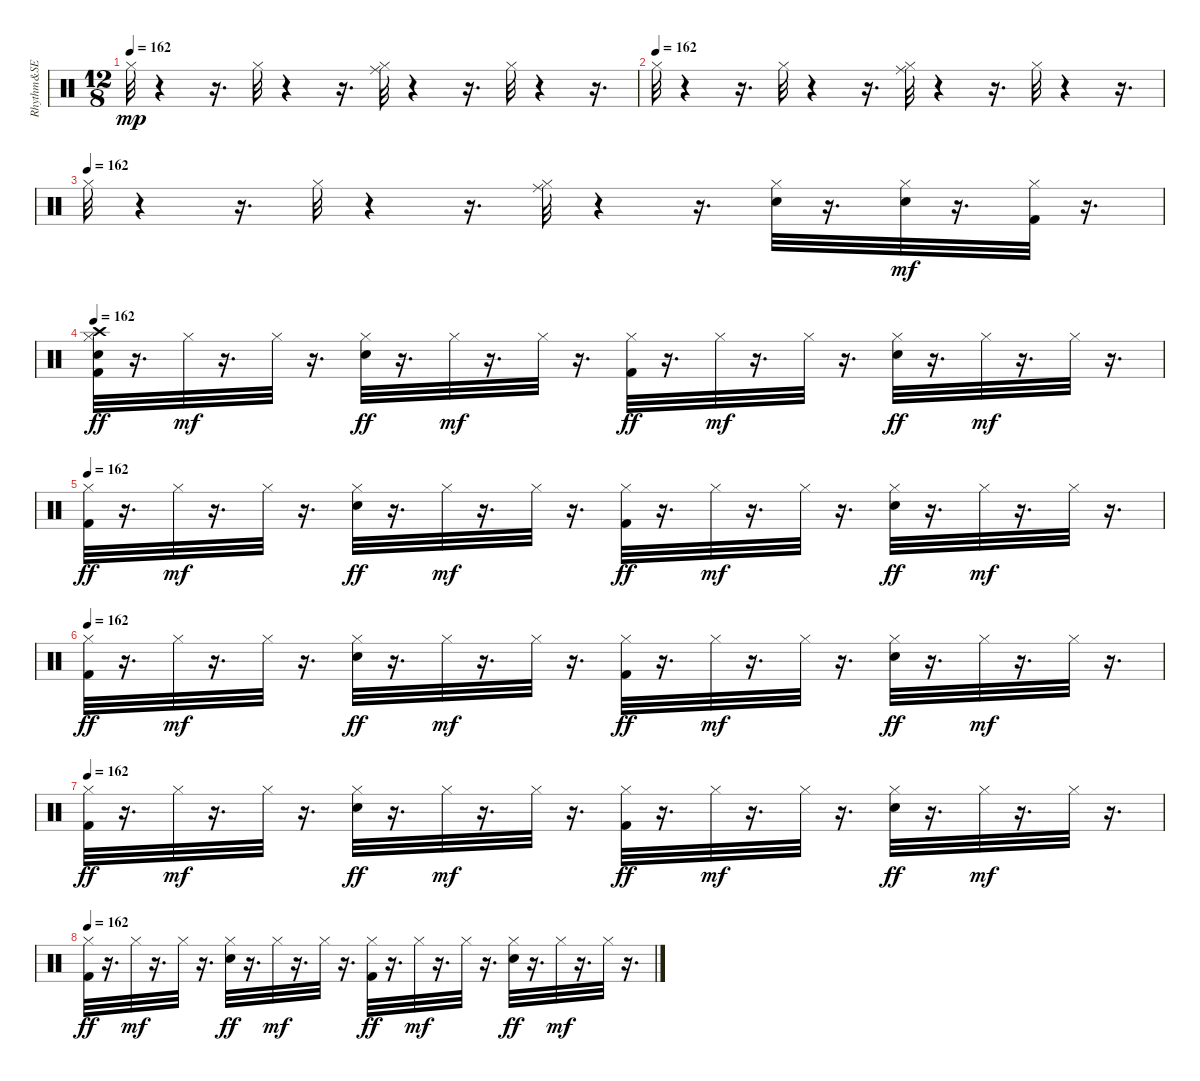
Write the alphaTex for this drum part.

\track ("Rhythm&SE" "Rhythm&SE") {instrument percussion}
\staff {score}
\articulation defaults
\ts (12 8)
\tempo 162
\clef neutral
\ks c "Hi-Hat (closed)".32{dy mp}
r.4 r.16{d} "Hi-Hat (closed)".32 r.4 r.16{d} ("Hi-Hat (closed)" "Ride (middle)").32 r.4 r.16{d} "Hi-Hat (closed)".32 r.4 r.16{d} |
\tempo (162)
"Hi-Hat (closed)".32 r.4 r.16{d} "Hi-Hat (closed)".32 r.4 r.16{d} ("Hi-Hat (closed)" "Ride (middle)").32 r.4 r.16{d} "Hi-Hat (closed)".32 r.4 r.16{d} |
\tempo (162)
"Hi-Hat (closed)".32 r.4 r.16{d} "Hi-Hat (closed)".32 r.4 r.16{d} ("Hi-Hat (closed)" "Ride (middle)").32 r.4 r.16{d} ("Snare (hit) 2" "Hi-Hat (closed)").32 r.16{d} ("Snare (hit) 2" "Hi-Hat (closed)").32{dy mf} r.16{d} ("Kick (hit) 2" "Hi-Hat (closed)").32 r.16{d} |
\tempo 162
("Kick (hit) 2" "Hi-Hat (closed)" "Snare (hit) 2" "Crash high (hit)").32{dy ff volume 14 balance 8} r.16{d} "Hi-Hat (closed)".32{dy mf} r.16{d} "Hi-Hat (closed)".32{volume 14} r.16{d} ("Snare (hit) 2" "Hi-Hat (closed)").32{dy ff} r.16{d} "Hi-Hat (closed)".32{dy mf} r.16{d} "Hi-Hat (closed)".32 r.16{d} ("Kick (hit) 2" "Hi-Hat (closed)").32{dy ff} r.16{d} "Hi-Hat (closed)".32{dy mf} r.16{d} "Hi-Hat (closed)".32 r.16{d} ("Snare (hit) 2" "Hi-Hat (closed)").32{dy ff} r.16{d} "Hi-Hat (closed)".32{dy mf} r.16{d} "Hi-Hat (closed)".32 r.16{d} |
\tempo 162
("Kick (hit) 2" "Hi-Hat (closed)").32{dy ff volume 14 balance 8} r.16{d} "Hi-Hat (closed)".32{dy mf} r.16{d} "Hi-Hat (closed)".32{volume 14} r.16{d} ("Snare (hit) 2" "Hi-Hat (closed)").32{dy ff} r.16{d} "Hi-Hat (closed)".32{dy mf} r.16{d} "Hi-Hat (closed)".32 r.16{d} ("Kick (hit) 2" "Hi-Hat (closed)").32{dy ff} r.16{d} "Hi-Hat (closed)".32{dy mf} r.16{d} "Hi-Hat (closed)".32 r.16{d} ("Snare (hit) 2" "Hi-Hat (closed)").32{dy ff} r.16{d} "Hi-Hat (closed)".32{dy mf} r.16{d} "Hi-Hat (closed)".32 r.16{d} |
\tempo 162
("Kick (hit) 2" "Hi-Hat (closed)").32{dy ff volume 14 balance 8} r.16{d} "Hi-Hat (closed)".32{dy mf} r.16{d} "Hi-Hat (closed)".32 r.16{d} ("Snare (hit) 2" "Hi-Hat (closed)").32{dy ff volume 13} r.16{d} "Hi-Hat (closed)".32{dy mf} r.16{d} "Hi-Hat (closed)".32{volume 13} r.16{d} ("Kick (hit) 2" "Hi-Hat (closed)").32{dy ff} r.16{d} "Hi-Hat (closed)".32{dy mf volume 13} r.16{d} "Hi-Hat (closed)".32 r.16{d} ("Snare (hit) 2" "Hi-Hat (closed)").32{dy ff} r.16{d} "Hi-Hat (closed)".32{dy mf volume 13} r.16{d} "Hi-Hat (closed)".32 r.16{d} |
\tempo 162
("Kick (hit) 2" "Hi-Hat (closed)").32{dy ff volume 13 balance 8} r.16{d} "Hi-Hat (closed)".32{dy mf} r.16{d} "Hi-Hat (closed)".32{volume 13} r.16{d} ("Snare (hit) 2" "Hi-Hat (closed)").32{dy ff} r.16{d} "Hi-Hat (closed)".32{dy mf} r.16{d} "Hi-Hat (closed)".32{volume 13} r.16{d} ("Kick (hit) 2" "Hi-Hat (closed)").32{dy ff} r.16{d} "Hi-Hat (closed)".32{dy mf volume 12} r.16{d} "Hi-Hat (closed)".32 r.16{d} ("Snare (hit) 2" "Hi-Hat (closed)").32{dy ff volume 12} r.16{d} "Hi-Hat (closed)".32{dy mf} r.16{d} "Hi-Hat (closed)".32{volume 12} r.16{d} |
\tempo 162
("Kick (hit) 2" "Hi-Hat (closed)").32{dy ff balance 8} r.16{d} "Hi-Hat (closed)".32{dy mf} r.16{d} "Hi-Hat (closed)".32{volume 12} r.16{d} ("Snare (hit) 2" "Hi-Hat (closed)").32{dy ff} r.16{d} "Hi-Hat (closed)".32{dy mf volume 12} r.16{d} "Hi-Hat (closed)".32 r.16{d} ("Kick (hit) 2" "Hi-Hat (closed)").32{dy ff volume 12} r.16{d} "Hi-Hat (closed)".32{dy mf} r.16{d} "Hi-Hat (closed)".32 r.16{d} ("Snare (hit) 2" "Hi-Hat (closed)").32{dy ff volume 12} r.16{d} "Hi-Hat (closed)".32{dy mf} r.16{d} "Hi-Hat (closed)".32{volume 12} r.16{d}
